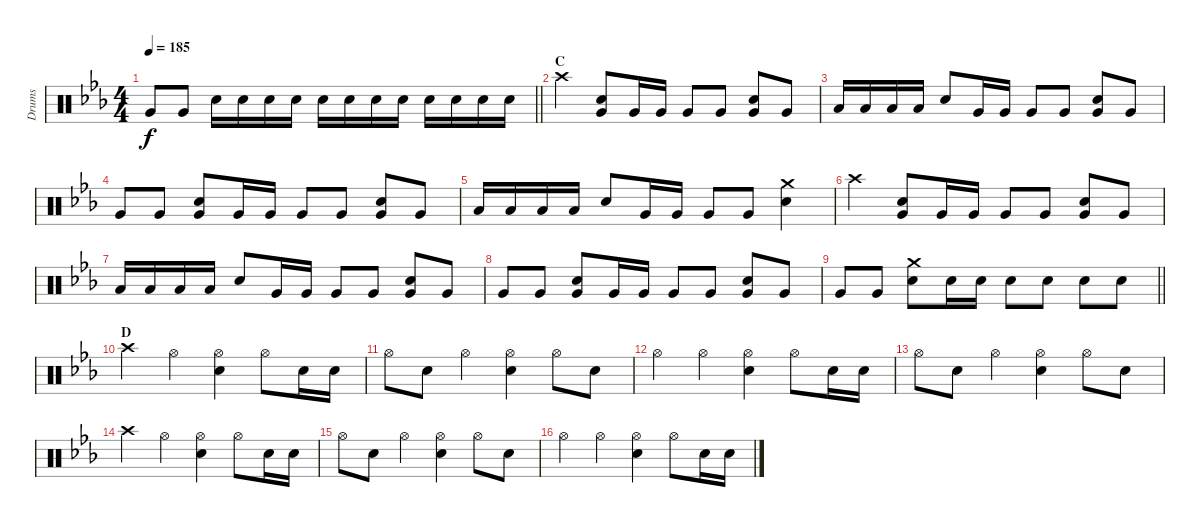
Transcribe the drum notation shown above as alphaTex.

\track ("Drums" "Drums") {instrument percussion}
\staff {score}
\articulation defaults
\ts (4 4)
\tempo 185
\clef neutral
\barLineRight lightlight
\ks eb "Very Low Tom (hit)".8{dy f} "Very Low Tom (hit)".8 "Snare (hit) 2".16 "Snare (hit) 2".16 "Snare (hit) 2".16 "Snare (hit) 2".16 "Snare (hit) 2".16 "Snare (hit) 2".16 "Snare (hit) 2".16 "Snare (hit) 2".16 "Snare (hit) 2".16 "Snare (hit) 2".16 "Snare (hit) 2".16 "Snare (hit) 2".16
|
\section ("" "C")
"Crash high (hit)".4 ("Very Low Tom (hit)" "Snare (hit) 2").8 "Very Low Tom (hit)".16 "Very Low Tom (hit)".16 "Very Low Tom (hit)".8 "Very Low Tom (hit)".8 ("Snare (hit) 2" "Very Low Tom (hit)").8 "Very Low Tom (hit)".8 |
"Low Tom (hit)".16 "Low Tom (hit)".16 "Low Tom (hit)".16 "Low Tom (hit)".16 "Snare (hit) 2".8 "Very Low Tom (hit)".16 "Very Low Tom (hit)".16 "Very Low Tom (hit)".8 "Very Low Tom (hit)".8 ("Snare (hit) 2" "Very Low Tom (hit)").8 "Very Low Tom (hit)".8 |
"Very Low Tom (hit)".8 "Very Low Tom (hit)".8 ("Snare (hit) 2" "Very Low Tom (hit)").8 "Very Low Tom (hit)".16 "Very Low Tom (hit)".16 "Very Low Tom (hit)".8 "Very Low Tom (hit)".8 ("Snare (hit) 2" "Very Low Tom (hit)").8 "Very Low Tom (hit)".8 |
"Low Tom (hit)".16 "Low Tom (hit)".16 "Low Tom (hit)".16 "Low Tom (hit)".16 "Snare (hit) 2".8 "Very Low Tom (hit)".16 "Very Low Tom (hit)".16 "Very Low Tom (hit)".8 "Very Low Tom (hit)".8 ("Crash medium (hit)" "Snare (hit) 2").4 |
"Crash high (hit)".4 ("Very Low Tom (hit)" "Snare (hit) 2").8 "Very Low Tom (hit)".16 "Very Low Tom (hit)".16 "Very Low Tom (hit)".8 "Very Low Tom (hit)".8 ("Snare (hit) 2" "Very Low Tom (hit)").8 "Very Low Tom (hit)".8 |
"Low Tom (hit)".16 "Low Tom (hit)".16 "Low Tom (hit)".16 "Low Tom (hit)".16 "Snare (hit) 2".8 "Very Low Tom (hit)".16 "Very Low Tom (hit)".16 "Very Low Tom (hit)".8 "Very Low Tom (hit)".8 ("Snare (hit) 2" "Very Low Tom (hit)").8 "Very Low Tom (hit)".8 |
"Very Low Tom (hit)".8 "Very Low Tom (hit)".8 ("Snare (hit) 2" "Very Low Tom (hit)").8 "Very Low Tom (hit)".16 "Very Low Tom (hit)".16 "Very Low Tom (hit)".8 "Very Low Tom (hit)".8 ("Snare (hit) 2" "Very Low Tom (hit)").8 "Very Low Tom (hit)".8 |
\barLineRight lightlight "Very Low Tom (hit)".8 "Very Low Tom (hit)".8
("Crash medium (hit)" "Snare (hit) 2").8 "Snare (hit) 2".16 "Snare (hit) 2".16 "Snare (hit) 2".8 "Snare (hit) 2".8 "Snare (hit) 2".8 "Snare (hit) 2".8 |
\section ("" "D")
"Crash high (hit)".4 "Hi-Hat (open)".4 ("Hi-Hat (open)" "Snare (hit) 2").4 "Hi-Hat (open)".8 "Snare (hit) 2".16 "Snare (hit) 2".16 |
"Hi-Hat (open)".8 "Snare (hit) 2".8 "Hi-Hat (open)".4 ("Hi-Hat (open)" "Snare (hit) 2").4 "Hi-Hat (open)".8 "Snare (hit) 2".8 |
"Hi-Hat (open)".4 "Hi-Hat (open)".4 ("Hi-Hat (open)" "Snare (hit) 2").4 "Hi-Hat (open)".8 "Snare (hit) 2".16 "Snare (hit) 2".16 |
"Hi-Hat (open)".8 "Snare (hit) 2".8 "Hi-Hat (open)".4 ("Hi-Hat (open)" "Snare (hit) 2").4 "Hi-Hat (open)".8 "Snare (hit) 2".8 |
"Crash high (hit)".4 "Hi-Hat (open)".4 ("Hi-Hat (open)" "Snare (hit) 2").4 "Hi-Hat (open)".8 "Snare (hit) 2".16 "Snare (hit) 2".16 |
"Hi-Hat (open)".8 "Snare (hit) 2".8 "Hi-Hat (open)".4 ("Hi-Hat (open)" "Snare (hit) 2").4 "Hi-Hat (open)".8 "Snare (hit) 2".8 |
"Hi-Hat (open)".4 "Hi-Hat (open)".4 ("Hi-Hat (open)" "Snare (hit) 2").4 "Hi-Hat (open)".8 "Snare (hit) 2".16 "Snare (hit) 2".16
